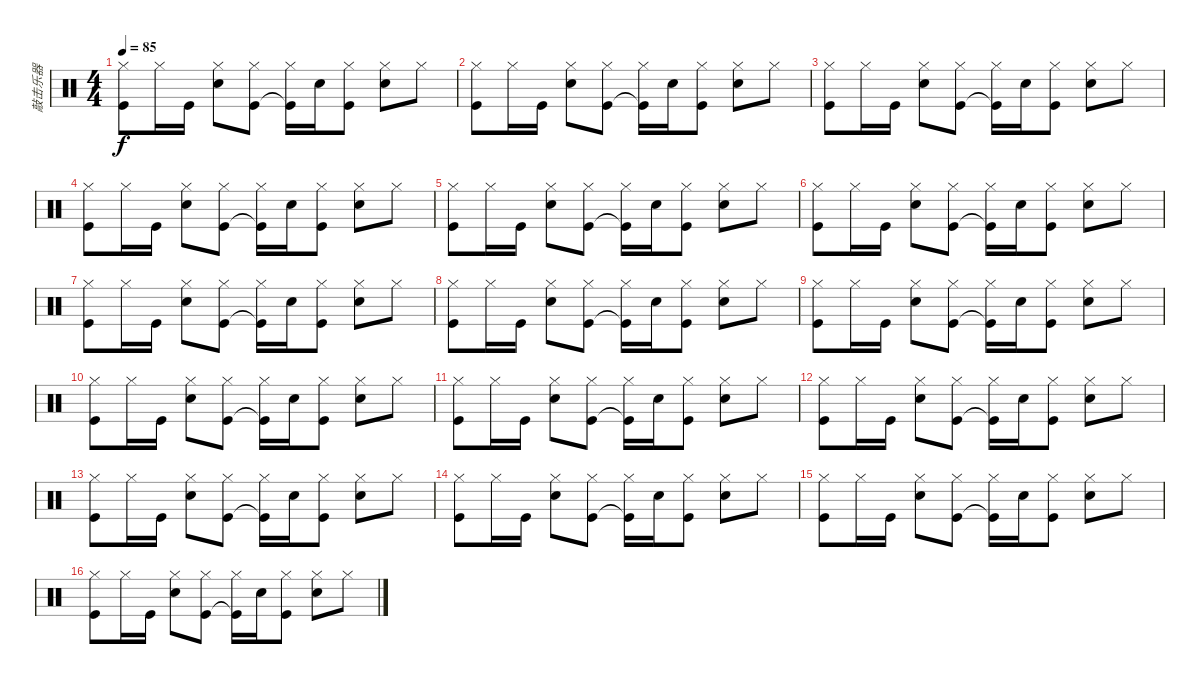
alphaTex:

\track ("敲击乐器" "敲击乐器") {instrument percussion}
\staff {score}
\articulation defaults
\ts (4 4)
\tempo 85
\clef neutral
\ks c
("Hi-Hat (closed)" "Kick (hit)").8{dy f} "Hi-Hat (closed)".16 "Kick (hit)".16 ("Hi-Hat (closed)" "Snare (hit) 2").8 ("Hi-Hat (closed)" "Kick (hit)").8 ("Hi-Hat (closed)" "Kick (hit)"{t}).16 "Snare (hit) 2".16 ("Hi-Hat (closed)" "Kick (hit)").8 ("Hi-Hat (closed)" "Snare (hit) 2").8 "Hi-Hat (closed)".8 |
("Hi-Hat (closed)" "Kick (hit)").8 "Hi-Hat (closed)".16 "Kick (hit)".16 ("Hi-Hat (closed)" "Snare (hit) 2").8 ("Hi-Hat (closed)" "Kick (hit)").8 ("Hi-Hat (closed)" "Kick (hit)"{t}).16 "Snare (hit) 2".16 ("Hi-Hat (closed)" "Kick (hit)").8 ("Hi-Hat (closed)" "Snare (hit) 2").8 "Hi-Hat (closed)".8 |
("Hi-Hat (closed)" "Kick (hit)").8 "Hi-Hat (closed)".16 "Kick (hit)".16 ("Hi-Hat (closed)" "Snare (hit) 2").8 ("Hi-Hat (closed)" "Kick (hit)").8 ("Hi-Hat (closed)" "Kick (hit)"{t}).16 "Snare (hit) 2".16 ("Hi-Hat (closed)" "Kick (hit)").8 ("Hi-Hat (closed)" "Snare (hit) 2").8 "Hi-Hat (closed)".8 |
("Hi-Hat (closed)" "Kick (hit)").8 "Hi-Hat (closed)".16 "Kick (hit)".16 ("Hi-Hat (closed)" "Snare (hit) 2").8 ("Hi-Hat (closed)" "Kick (hit)").8 ("Hi-Hat (closed)" "Kick (hit)"{t}).16 "Snare (hit) 2".16 ("Hi-Hat (closed)" "Kick (hit)").8 ("Hi-Hat (closed)" "Snare (hit) 2").8 "Hi-Hat (closed)".8 |
("Hi-Hat (closed)" "Kick (hit)").8 "Hi-Hat (closed)".16 "Kick (hit)".16 ("Hi-Hat (closed)" "Snare (hit) 2").8 ("Hi-Hat (closed)" "Kick (hit)").8 ("Hi-Hat (closed)" "Kick (hit)"{t}).16 "Snare (hit) 2".16 ("Hi-Hat (closed)" "Kick (hit)").8 ("Hi-Hat (closed)" "Snare (hit) 2").8 "Hi-Hat (closed)".8 |
("Hi-Hat (closed)" "Kick (hit)").8 "Hi-Hat (closed)".16 "Kick (hit)".16 ("Hi-Hat (closed)" "Snare (hit) 2").8 ("Hi-Hat (closed)" "Kick (hit)").8 ("Hi-Hat (closed)" "Kick (hit)"{t}).16 "Snare (hit) 2".16 ("Hi-Hat (closed)" "Kick (hit)").8 ("Hi-Hat (closed)" "Snare (hit) 2").8 "Hi-Hat (closed)".8 |
("Hi-Hat (closed)" "Kick (hit)").8 "Hi-Hat (closed)".16 "Kick (hit)".16 ("Hi-Hat (closed)" "Snare (hit) 2").8 ("Hi-Hat (closed)" "Kick (hit)").8 ("Hi-Hat (closed)" "Kick (hit)"{t}).16 "Snare (hit) 2".16 ("Hi-Hat (closed)" "Kick (hit)").8 ("Hi-Hat (closed)" "Snare (hit) 2").8 "Hi-Hat (closed)".8 |
("Hi-Hat (closed)" "Kick (hit)").8 "Hi-Hat (closed)".16 "Kick (hit)".16 ("Hi-Hat (closed)" "Snare (hit) 2").8 ("Hi-Hat (closed)" "Kick (hit)").8 ("Hi-Hat (closed)" "Kick (hit)"{t}).16 "Snare (hit) 2".16 ("Hi-Hat (closed)" "Kick (hit)").8 ("Hi-Hat (closed)" "Snare (hit) 2").8 "Hi-Hat (closed)".8 |
("Hi-Hat (closed)" "Kick (hit)").8 "Hi-Hat (closed)".16 "Kick (hit)".16 ("Hi-Hat (closed)" "Snare (hit) 2").8 ("Hi-Hat (closed)" "Kick (hit)").8 ("Hi-Hat (closed)" "Kick (hit)"{t}).16 "Snare (hit) 2".16 ("Hi-Hat (closed)" "Kick (hit)").8 ("Hi-Hat (closed)" "Snare (hit) 2").8 "Hi-Hat (closed)".8 |
("Hi-Hat (closed)" "Kick (hit)").8 "Hi-Hat (closed)".16 "Kick (hit)".16 ("Hi-Hat (closed)" "Snare (hit) 2").8 ("Hi-Hat (closed)" "Kick (hit)").8 ("Hi-Hat (closed)" "Kick (hit)"{t}).16 "Snare (hit) 2".16 ("Hi-Hat (closed)" "Kick (hit)").8 ("Hi-Hat (closed)" "Snare (hit) 2").8 "Hi-Hat (closed)".8 |
("Hi-Hat (closed)" "Kick (hit)").8 "Hi-Hat (closed)".16 "Kick (hit)".16 ("Hi-Hat (closed)" "Snare (hit) 2").8 ("Hi-Hat (closed)" "Kick (hit)").8 ("Hi-Hat (closed)" "Kick (hit)"{t}).16 "Snare (hit) 2".16 ("Hi-Hat (closed)" "Kick (hit)").8 ("Hi-Hat (closed)" "Snare (hit) 2").8 "Hi-Hat (closed)".8 |
("Hi-Hat (closed)" "Kick (hit)").8 "Hi-Hat (closed)".16 "Kick (hit)".16 ("Hi-Hat (closed)" "Snare (hit) 2").8 ("Hi-Hat (closed)" "Kick (hit)").8 ("Hi-Hat (closed)" "Kick (hit)"{t}).16 "Snare (hit) 2".16 ("Hi-Hat (closed)" "Kick (hit)").8 ("Hi-Hat (closed)" "Snare (hit) 2").8 "Hi-Hat (closed)".8 |
("Hi-Hat (closed)" "Kick (hit)").8 "Hi-Hat (closed)".16 "Kick (hit)".16 ("Hi-Hat (closed)" "Snare (hit) 2").8 ("Hi-Hat (closed)" "Kick (hit)").8 ("Hi-Hat (closed)" "Kick (hit)"{t}).16 "Snare (hit) 2".16 ("Hi-Hat (closed)" "Kick (hit)").8 ("Hi-Hat (closed)" "Snare (hit) 2").8 "Hi-Hat (closed)".8 |
("Hi-Hat (closed)" "Kick (hit)").8 "Hi-Hat (closed)".16 "Kick (hit)".16 ("Hi-Hat (closed)" "Snare (hit) 2").8 ("Hi-Hat (closed)" "Kick (hit)").8 ("Hi-Hat (closed)" "Kick (hit)"{t}).16 "Snare (hit) 2".16 ("Hi-Hat (closed)" "Kick (hit)").8 ("Hi-Hat (closed)" "Snare (hit) 2").8 "Hi-Hat (closed)".8 |
("Hi-Hat (closed)" "Kick (hit)").8 "Hi-Hat (closed)".16 "Kick (hit)".16 ("Hi-Hat (closed)" "Snare (hit) 2").8 ("Hi-Hat (closed)" "Kick (hit)").8 ("Hi-Hat (closed)" "Kick (hit)"{t}).16 "Snare (hit) 2".16 ("Hi-Hat (closed)" "Kick (hit)").8 ("Hi-Hat (closed)" "Snare (hit) 2").8 "Hi-Hat (closed)".8 |
("Hi-Hat (closed)" "Kick (hit)").8 "Hi-Hat (closed)".16 "Kick (hit)".16 ("Hi-Hat (closed)" "Snare (hit) 2").8 ("Hi-Hat (closed)" "Kick (hit)").8 ("Hi-Hat (closed)" "Kick (hit)"{t}).16 "Snare (hit) 2".16 ("Hi-Hat (closed)" "Kick (hit)").8 ("Hi-Hat (closed)" "Snare (hit) 2").8 "Hi-Hat (closed)".8
